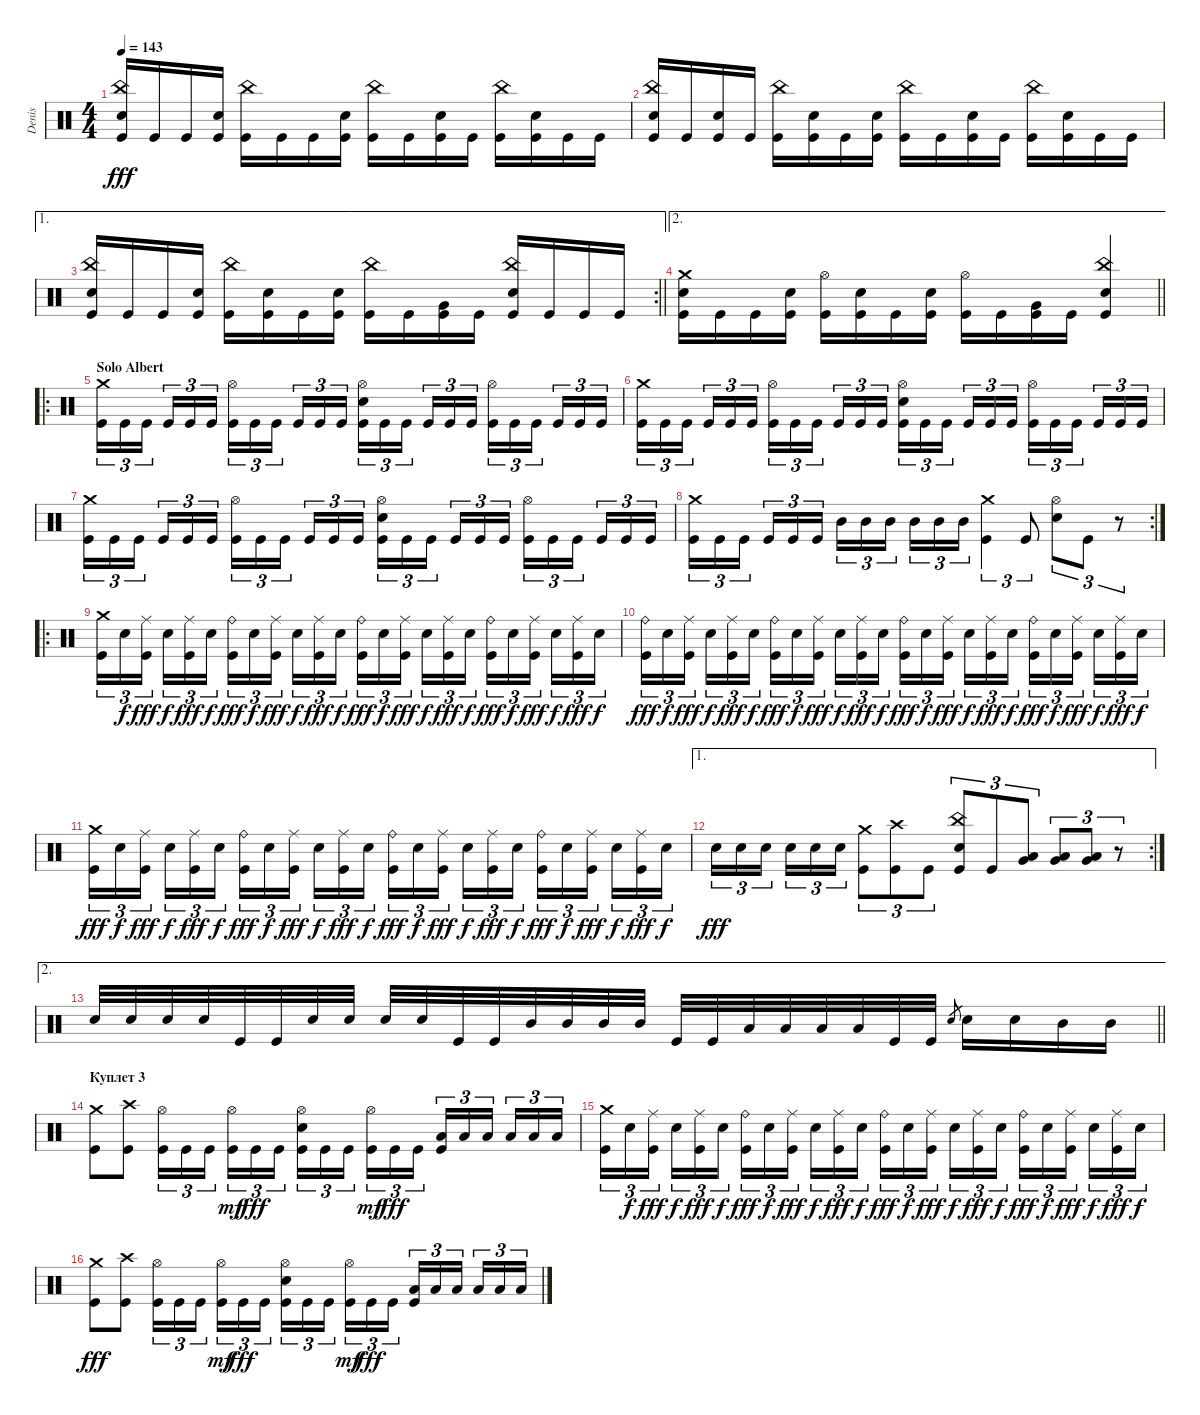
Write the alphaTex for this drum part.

\track ("Denis" "Denis") {instrument percussion}
\staff {score}
\articulation defaults
\ts (4 4)
\tempo 143
\clef neutral
\ks c
("Kick (hit)" "China (hit)" "Electric Snare (hit)").16{dy fff} "Kick (hit)".16 "Kick (hit)".16 ("Kick (hit)" "Electric Snare (hit)").16 ("Kick (hit)" "China (hit)").16 "Kick (hit)".16 "Kick (hit)".16 ("Kick (hit)" "Electric Snare (hit)").16 ("Kick (hit)" "China (hit)").16 "Kick (hit)".16 ("Kick (hit)" "Electric Snare (hit)").16 "Kick (hit)".16 ("Kick (hit)" "China (hit)").16 ("Kick (hit)" "Electric Snare (hit)").16 "Kick (hit)".16 "Kick (hit)".16 |
("Kick (hit)" "China (hit)" "Electric Snare (hit)").16 "Kick (hit)".16 ("Kick (hit)" "Electric Snare (hit)").16 "Kick (hit)".16 ("Kick (hit)" "China (hit)").16 ("Kick (hit)" "Electric Snare (hit)").16 "Kick (hit)".16 ("Kick (hit)" "Electric Snare (hit)").16 ("Kick (hit)" "China (hit)").16 "Kick (hit)".16 ("Kick (hit)" "Electric Snare (hit)").16 "Kick (hit)".16 ("Kick (hit)" "China (hit)").16 ("Kick (hit)" "Electric Snare (hit)").16 "Kick (hit)".16 "Kick (hit)".16 |
\ae 1
\rc 2
\barLineRight lightlight
("Kick (hit)" "Electric Snare (hit)" "China (hit)").16 "Kick (hit)".16 "Kick (hit)".16 ("Kick (hit)" "Electric Snare (hit)").16 ("Kick (hit)" "China (hit)").16 ("Kick (hit)" "Electric Snare (hit)").16 "Kick (hit)".16 ("Kick (hit)" "Electric Snare (hit)").16 ("Kick (hit)" "China (hit)").16 "Kick (hit)".16 ("Kick (hit)" "Very Low Tom (hit)").16 "Kick (hit)".16 ("Kick (hit)" "Electric Snare (hit)" "China (hit)").16 "Kick (hit)".16 "Kick (hit)".16 "Kick (hit)".16 |
\ae 2
\barLineRight lightlight
("Kick (hit)" "Electric Snare (hit)" "Crash medium (hit)").16 "Kick (hit)".16 "Kick (hit)".16 ("Kick (hit)" "Electric Snare (hit)").16 ("Kick (hit)" "Hi-Hat (open)").16 ("Kick (hit)" "Electric Snare (hit)").16 "Kick (hit)".16 ("Kick (hit)" "Electric Snare (hit)").16 ("Kick (hit)" "Hi-Hat (open)").16 "Kick (hit)".16 ("Kick (hit)" "Very Low Tom (hit)").16 "Kick (hit)".16 ("Kick (hit)" "Electric Snare (hit)" "China (hit)").4 |
\ro
\section ("" "Solo Albert")
("Crash medium (hit)" "Kick (hit)").16{tu (3 2)} "Kick (hit)".16{tu (3 2)} "Kick (hit)".16{tu (3 2) beam splitsecondary} "Kick (hit)".16{tu (3 2)} "Kick (hit)".16{tu (3 2)} "Kick (hit)".16{tu (3 2)} ("Kick (hit)" "Hi-Hat (open)").16{tu (3 2)} "Kick (hit)".16{tu (3 2)} "Kick (hit)".16{tu (3 2) beam splitsecondary} "Kick (hit)".16{tu (3 2)} "Kick (hit)".16{tu (3 2)} "Kick (hit)".16{tu (3 2)} ("Kick (hit)" "Hi-Hat (open)" "Electric Snare (hit)").16{tu (3 2)} "Kick (hit)".16{tu (3 2)} "Kick (hit)".16{tu (3 2) beam splitsecondary} "Kick (hit)".16{tu (3 2)} "Kick (hit)".16{tu (3 2)} "Kick (hit)".16{tu (3 2)} ("Kick (hit)" "Hi-Hat (open)").16{tu (3 2)} "Kick (hit)".16{tu (3 2)} "Kick (hit)".16{tu (3 2) beam splitsecondary} "Kick (hit)".16{tu (3 2)} "Kick (hit)".16{tu (3 2)} "Kick (hit)".16{tu (3 2)} |
("Crash medium (hit)" "Kick (hit)").16{tu (3 2)} "Kick (hit)".16{tu (3 2)} "Kick (hit)".16{tu (3 2) beam splitsecondary} "Kick (hit)".16{tu (3 2)} "Kick (hit)".16{tu (3 2)} "Kick (hit)".16{tu (3 2)} ("Kick (hit)" "Hi-Hat (open)").16{tu (3 2)} "Kick (hit)".16{tu (3 2)} "Kick (hit)".16{tu (3 2) beam splitsecondary} "Kick (hit)".16{tu (3 2)} "Kick (hit)".16{tu (3 2)} "Kick (hit)".16{tu (3 2)} ("Kick (hit)" "Hi-Hat (open)" "Electric Snare (hit)").16{tu (3 2)} "Kick (hit)".16{tu (3 2)} "Kick (hit)".16{tu (3 2) beam splitsecondary} "Kick (hit)".16{tu (3 2)} "Kick (hit)".16{tu (3 2)} "Kick (hit)".16{tu (3 2)} ("Kick (hit)" "Hi-Hat (open)").16{tu (3 2)} "Kick (hit)".16{tu (3 2)} "Kick (hit)".16{tu (3 2) beam splitsecondary} "Kick (hit)".16{tu (3 2)} "Kick (hit)".16{tu (3 2)} "Kick (hit)".16{tu (3 2)} |
("Crash medium (hit)" "Kick (hit)").16{tu (3 2)} "Kick (hit)".16{tu (3 2)} "Kick (hit)".16{tu (3 2) beam splitsecondary} "Kick (hit)".16{tu (3 2)} "Kick (hit)".16{tu (3 2)} "Kick (hit)".16{tu (3 2)} ("Kick (hit)" "Hi-Hat (open)").16{tu (3 2)} "Kick (hit)".16{tu (3 2)} "Kick (hit)".16{tu (3 2) beam splitsecondary} "Kick (hit)".16{tu (3 2)} "Kick (hit)".16{tu (3 2)} "Kick (hit)".16{tu (3 2)} ("Kick (hit)" "Hi-Hat (open)" "Electric Snare (hit)").16{tu (3 2)} "Kick (hit)".16{tu (3 2)} "Kick (hit)".16{tu (3 2) beam splitsecondary} "Kick (hit)".16{tu (3 2)} "Kick (hit)".16{tu (3 2)} "Kick (hit)".16{tu (3 2)} ("Kick (hit)" "Hi-Hat (open)").16{tu (3 2)} "Kick (hit)".16{tu (3 2)} "Kick (hit)".16{tu (3 2) beam splitsecondary} "Kick (hit)".16{tu (3 2)} "Kick (hit)".16{tu (3 2)} "Kick (hit)".16{tu (3 2)} |
\rc 2
("Crash medium (hit)" "Kick (hit)").16{tu (3 2)} "Kick (hit)".16{tu (3 2)} "Kick (hit)".16{tu (3 2) beam splitsecondary} "Kick (hit)".16{tu (3 2)} "Kick (hit)".16{tu (3 2)} "Kick (hit)".16{tu (3 2)} "Mid Tom (hit)".16{tu (3 2)} "Mid Tom (hit)".16{tu (3 2)} "Mid Tom (hit)".16{tu (3 2) beam splitsecondary} "Mid Tom (hit)".16{tu (3 2)} "Mid Tom (hit)".16{tu (3 2)} "Mid Tom (hit)".16{tu (3 2)} ("Crash medium (hit)" "Kick (hit)").4{tu (3 2)} "Kick (hit)".8{tu (3 2)} ("Electric Snare (hit)" "Hi-Hat (open)").8{tu (3 2)} "Kick (hit)".8{tu (3 2)} r.8{tu (3 2)} |
\ro
("Crash medium (hit)" "Kick (hit)").16{tu (3 2)} "Electric Snare (hit)".16{tu (3 2) dy f} ("Kick (hit)" "Ride (middle)").16{tu (3 2) dy fff beam splitsecondary} "Electric Snare (hit)".16{tu (3 2) dy f} ("Kick (hit)" "Ride (middle)").16{tu (3 2) dy fff} "Electric Snare (hit)".16{tu (3 2) dy f} ("Kick (hit)" "Ride (bell)").16{tu (3 2) dy fff} "Electric Snare (hit)".16{tu (3 2) dy f} ("Kick (hit)" "Ride (middle)").16{tu (3 2) dy fff beam splitsecondary} "Electric Snare (hit)".16{tu (3 2) dy f} ("Kick (hit)" "Ride (middle)").16{tu (3 2) dy fff} "Electric Snare (hit)".16{tu (3 2) dy f} ("Kick (hit)" "Ride (bell)").16{tu (3 2) dy fff} "Electric Snare (hit)".16{tu (3 2) dy f} ("Kick (hit)" "Ride (middle)").16{tu (3 2) dy fff beam splitsecondary} "Electric Snare (hit)".16{tu (3 2) dy f} ("Kick (hit)" "Ride (middle)").16{tu (3 2) dy fff} "Electric Snare (hit)".16{tu (3 2) dy f} ("Kick (hit)" "Ride (bell)").16{tu (3 2) dy fff} "Electric Snare (hit)".16{tu (3 2) dy f} ("Kick (hit)" "Ride (middle)").16{tu (3 2) dy fff beam splitsecondary} "Electric Snare (hit)".16{tu (3 2) dy f} ("Kick (hit)" "Ride (middle)").16{tu (3 2) dy fff} "Electric Snare (hit)".16{tu (3 2) dy f} |
("Kick (hit)" "Ride (bell)").16{tu (3 2) dy fff} "Electric Snare (hit)".16{tu (3 2) dy f} ("Kick (hit)" "Ride (middle)").16{tu (3 2) dy fff beam splitsecondary} "Electric Snare (hit)".16{tu (3 2) dy f} ("Kick (hit)" "Ride (middle)").16{tu (3 2) dy fff} "Electric Snare (hit)".16{tu (3 2) dy f} ("Kick (hit)" "Ride (bell)").16{tu (3 2) dy fff} "Electric Snare (hit)".16{tu (3 2) dy f} ("Kick (hit)" "Ride (middle)").16{tu (3 2) dy fff beam splitsecondary} "Electric Snare (hit)".16{tu (3 2) dy f} ("Kick (hit)" "Ride (middle)").16{tu (3 2) dy fff} "Electric Snare (hit)".16{tu (3 2) dy f} ("Kick (hit)" "Ride (bell)").16{tu (3 2) dy fff} "Electric Snare (hit)".16{tu (3 2) dy f} ("Kick (hit)" "Ride (middle)").16{tu (3 2) dy fff beam splitsecondary} "Electric Snare (hit)".16{tu (3 2) dy f} ("Kick (hit)" "Ride (middle)").16{tu (3 2) dy fff} "Electric Snare (hit)".16{tu (3 2) dy f} ("Kick (hit)" "Ride (bell)").16{tu (3 2) dy fff} "Electric Snare (hit)".16{tu (3 2) dy f} ("Kick (hit)" "Ride (middle)").16{tu (3 2) dy fff beam splitsecondary} "Electric Snare (hit)".16{tu (3 2) dy f} ("Kick (hit)" "Ride (middle)").16{tu (3 2) dy fff} "Electric Snare (hit)".16{tu (3 2) dy f} |
("Crash medium (hit)" "Kick (hit)").16{tu (3 2) dy fff} "Electric Snare (hit)".16{tu (3 2) dy f} ("Kick (hit)" "Ride (middle)").16{tu (3 2) dy fff beam splitsecondary} "Electric Snare (hit)".16{tu (3 2) dy f} ("Kick (hit)" "Ride (middle)").16{tu (3 2) dy fff} "Electric Snare (hit)".16{tu (3 2) dy f} ("Kick (hit)" "Ride (bell)").16{tu (3 2) dy fff} "Electric Snare (hit)".16{tu (3 2) dy f} ("Kick (hit)" "Ride (middle)").16{tu (3 2) dy fff beam splitsecondary} "Electric Snare (hit)".16{tu (3 2) dy f} ("Kick (hit)" "Ride (middle)").16{tu (3 2) dy fff} "Electric Snare (hit)".16{tu (3 2) dy f} ("Kick (hit)" "Ride (bell)").16{tu (3 2) dy fff} "Electric Snare (hit)".16{tu (3 2) dy f} ("Kick (hit)" "Ride (middle)").16{tu (3 2) dy fff beam splitsecondary} "Electric Snare (hit)".16{tu (3 2) dy f} ("Kick (hit)" "Ride (middle)").16{tu (3 2) dy fff} "Electric Snare (hit)".16{tu (3 2) dy f} ("Kick (hit)" "Ride (bell)").16{tu (3 2) dy fff} "Electric Snare (hit)".16{tu (3 2) dy f} ("Kick (hit)" "Ride (middle)").16{tu (3 2) dy fff beam splitsecondary} "Electric Snare (hit)".16{tu (3 2) dy f} ("Kick (hit)" "Ride (middle)").16{tu (3 2) dy fff} "Electric Snare (hit)".16{tu (3 2) dy f} |
\ae 1
\rc 2 "Electric Snare (hit)".16{tu (3 2) dy fff} "Electric Snare (hit)".16{tu (3 2)} "Electric Snare (hit)".16{tu (3 2) beam splitsecondary} "Electric Snare (hit)".16{tu (3 2)} "Electric Snare (hit)".16{tu (3 2)} "Electric Snare (hit)".16{tu (3 2)}
("Crash medium (hit)" "Kick (hit)").8{tu (3 2)} ("Crash high (hit)" "Kick (hit)").8{tu (3 2)} "Kick (hit)".8{tu (3 2)} ("Electric Snare (hit)" "China (hit)" "Kick (hit)").8{tu (3 2)} "Kick (hit)".8{tu (3 2)} ("Low Tom (hit)" "Very Low Tom (hit)").8{tu (3 2)} ("Low Tom (hit)" "Very Low Tom (hit)").8{tu (3 2)} ("Low Tom (hit)" "Very Low Tom (hit)").8{tu (3 2)} r.8{tu (3 2)} |
\ae 2
\barLineRight lightlight "Electric Snare (hit)".32 "Electric Snare (hit)".32 "Electric Snare (hit)".32 "Electric Snare (hit)".32 "Kick (hit)".32 "Kick (hit)".32 "Electric Snare (hit)".32 "Electric Snare (hit)".32 "Electric Snare (hit)".32 "Electric Snare (hit)".32 "Kick (hit)".32 "Kick (hit)".32 "Mid Tom (hit)".32 "Mid Tom (hit)".32 "Mid Tom (hit)".32 "Mid Tom (hit)".32 "Kick (hit)".32 "Kick (hit)".32 "Low Tom (hit)".32 "Low Tom (hit)".32 "Low Tom (hit)".32 "Low Tom (hit)".32 "Kick (hit)".32 "Kick (hit)".32 "Electric Snare (hit)".8{gr} "Electric Snare (hit)".16 "Electric Snare (hit)".16 "Mid Tom (hit)".16 "Mid Tom (hit)".16
|
\section ("" "Куплет 3")
("Crash medium (hit)" "Kick (hit)").8 ("Crash high (hit)" "Kick (hit)").8 ("Kick (hit)" "Hi-Hat (open)").16{tu (3 2)} "Kick (hit)".16{tu (3 2)} "Kick (hit)".16{tu (3 2) beam splitsecondary} ("Kick (hit)" "Hi-Hat (open)").16{tu (3 2) dy mf} "Kick (hit)".16{tu (3 2) dy fff} "Kick (hit)".16{tu (3 2)} ("Kick (hit)" "Hi-Hat (open)" "Electric Snare (hit)").16{tu (3 2)} "Kick (hit)".16{tu (3 2)} "Kick (hit)".16{tu (3 2) beam splitsecondary} ("Kick (hit)" "Hi-Hat (open)").16{tu (3 2) dy mf} "Kick (hit)".16{tu (3 2) dy fff} "Kick (hit)".16{tu (3 2)} ("Kick (hit)" "Low Tom (hit)").16{tu (3 2)} "Low Tom (hit)".16{tu (3 2)} "Low Tom (hit)".16{tu (3 2) beam splitsecondary} "Low Tom (hit)".16{tu (3 2)} "Low Tom (hit)".16{tu (3 2)} "Low Tom (hit)".16{tu (3 2)} |
("Crash medium (hit)" "Kick (hit)").16{tu (3 2)} "Electric Snare (hit)".16{tu (3 2) dy f} ("Kick (hit)" "Ride (middle)").16{tu (3 2) dy fff beam splitsecondary} "Electric Snare (hit)".16{tu (3 2) dy f} ("Kick (hit)" "Ride (middle)").16{tu (3 2) dy fff} "Electric Snare (hit)".16{tu (3 2) dy f} ("Kick (hit)" "Ride (bell)").16{tu (3 2) dy fff} "Electric Snare (hit)".16{tu (3 2) dy f} ("Kick (hit)" "Ride (middle)").16{tu (3 2) dy fff beam splitsecondary} "Electric Snare (hit)".16{tu (3 2) dy f} ("Kick (hit)" "Ride (middle)").16{tu (3 2) dy fff} "Electric Snare (hit)".16{tu (3 2) dy f} ("Kick (hit)" "Ride (bell)").16{tu (3 2) dy fff} "Electric Snare (hit)".16{tu (3 2) dy f} ("Kick (hit)" "Ride (middle)").16{tu (3 2) dy fff beam splitsecondary} "Electric Snare (hit)".16{tu (3 2) dy f} ("Kick (hit)" "Ride (middle)").16{tu (3 2) dy fff} "Electric Snare (hit)".16{tu (3 2) dy f} ("Kick (hit)" "Ride (bell)").16{tu (3 2) dy fff} "Electric Snare (hit)".16{tu (3 2) dy f} ("Kick (hit)" "Ride (middle)").16{tu (3 2) dy fff beam splitsecondary} "Electric Snare (hit)".16{tu (3 2) dy f} ("Kick (hit)" "Ride (middle)").16{tu (3 2) dy fff} "Electric Snare (hit)".16{tu (3 2) dy f} |
("Crash medium (hit)" "Kick (hit)").8{dy fff} ("Crash high (hit)" "Kick (hit)").8 ("Kick (hit)" "Hi-Hat (open)").16{tu (3 2)} "Kick (hit)".16{tu (3 2)} "Kick (hit)".16{tu (3 2) beam splitsecondary} ("Kick (hit)" "Hi-Hat (open)").16{tu (3 2) dy mf} "Kick (hit)".16{tu (3 2) dy fff} "Kick (hit)".16{tu (3 2)} ("Kick (hit)" "Hi-Hat (open)" "Electric Snare (hit)").16{tu (3 2)} "Kick (hit)".16{tu (3 2)} "Kick (hit)".16{tu (3 2) beam splitsecondary} ("Kick (hit)" "Hi-Hat (open)").16{tu (3 2) dy mf} "Kick (hit)".16{tu (3 2) dy fff} "Kick (hit)".16{tu (3 2)} ("Kick (hit)" "Low Tom (hit)").16{tu (3 2)} "Low Tom (hit)".16{tu (3 2)} "Low Tom (hit)".16{tu (3 2) beam splitsecondary} "Low Tom (hit)".16{tu (3 2)} "Low Tom (hit)".16{tu (3 2)} "Low Tom (hit)".16{tu (3 2)}
